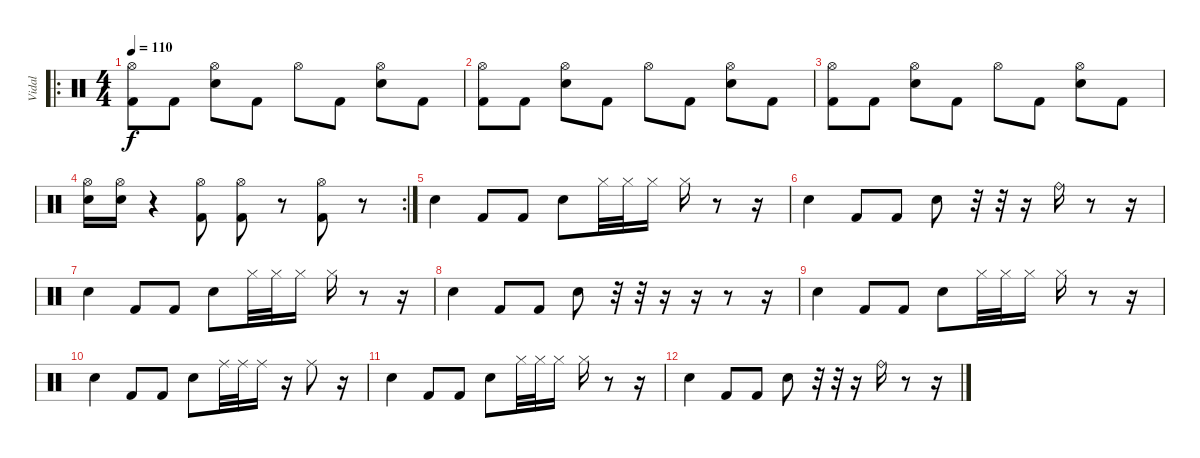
\track ("Vidal" "Vidal") {instrument percussion}
\staff {score}
\articulation defaults
\ro
\ts (4 4)
\tempo 110
\clef neutral
\ks c
("Hi-Hat (open)" "Kick (hit) 2").8{dy f} "Kick (hit) 2".8 ("Hi-Hat (open)" "Snare (hit) 2").8 "Kick (hit) 2".8 "Hi-Hat (open)".8 "Kick (hit) 2".8 ("Hi-Hat (open)" "Snare (hit) 2").8 "Kick (hit) 2".8 |
("Hi-Hat (open)" "Kick (hit) 2").8 "Kick (hit) 2".8 ("Hi-Hat (open)" "Snare (hit) 2").8 "Kick (hit) 2".8 "Hi-Hat (open)".8 "Kick (hit) 2".8 ("Hi-Hat (open)" "Snare (hit) 2").8 "Kick (hit) 2".8 |
("Hi-Hat (open)" "Kick (hit) 2").8 "Kick (hit) 2".8 ("Hi-Hat (open)" "Snare (hit) 2").8 "Kick (hit) 2".8 "Hi-Hat (open)".8 "Kick (hit) 2".8 ("Hi-Hat (open)" "Snare (hit) 2").8 "Kick (hit) 2".8 |
\rc 2
("Hi-Hat (open)" "Snare (hit) 2").16 ("Hi-Hat (open)" "Snare (hit) 2").16 r.4 ("Hi-Hat (open)" "Kick (hit) 2").8 ("Hi-Hat (open)" "Kick (hit) 2").8 r.8 ("Hi-Hat (open)" "Kick (hit) 2").8 r.8 |
"Snare (hit) 2".4 "Kick (hit) 2".8 "Kick (hit) 2".8 "Snare (hit) 2".8 "Hi-Hat (closed)".32 "Hi-Hat (closed)".32 "Hi-Hat (closed)".16 "Hi-Hat (closed)".16 r.8 r.16 |
"Snare (hit) 2".4 "Kick (hit) 2".8 "Kick (hit) 2".8 "Snare (hit) 2".8 r.32 r.32 r.16 "Ride (bell)".16 r.8 r.16 |
"Snare (hit) 2".4 "Kick (hit) 2".8 "Kick (hit) 2".8 "Snare (hit) 2".8 "Hi-Hat (closed)".32 "Hi-Hat (closed)".32 "Hi-Hat (closed)".16 "Hi-Hat (closed)".16 r.8 r.16 |
"Snare (hit) 2".4 "Kick (hit) 2".8 "Kick (hit) 2".8 "Snare (hit) 2".8 r.32 r.32 r.16 r.16 r.8 r.16 |
"Snare (hit) 2".4 "Kick (hit) 2".8 "Kick (hit) 2".8 "Snare (hit) 2".8 "Hi-Hat (closed)".32 "Hi-Hat (closed)".32 "Hi-Hat (closed)".16 "Hi-Hat (closed)".16 r.8 r.16 |
"Snare (hit) 2".4 "Kick (hit) 2".8 "Kick (hit) 2".8 "Snare (hit) 2".8 "Ride (middle)".32 "Ride (middle)".32 "Ride (middle)".16 r.16 "Ride (middle)".8 r.16 |
"Snare (hit) 2".4 "Kick (hit) 2".8 "Kick (hit) 2".8 "Snare (hit) 2".8 "Hi-Hat (closed)".32 "Hi-Hat (closed)".32 "Hi-Hat (closed)".16 "Hi-Hat (closed)".16 r.8 r.16 |
"Snare (hit) 2".4 "Kick (hit) 2".8 "Kick (hit) 2".8 "Snare (hit) 2".8 r.32 r.32 r.16 "Ride (bell)".16 r.8 r.16
